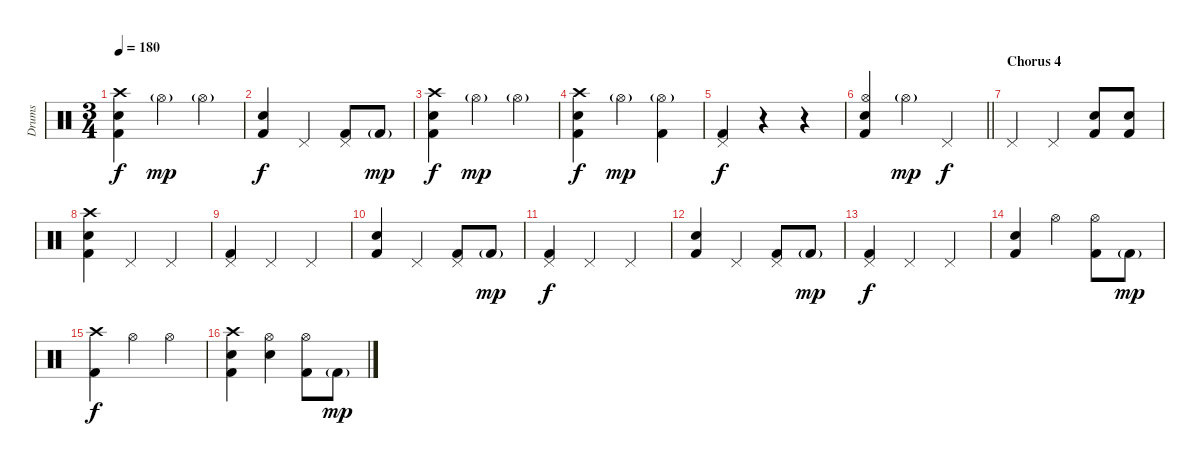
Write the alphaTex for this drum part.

\track ("Drums" "Drums") {instrument percussion}
\staff {score}
\articulation defaults
\ts (3 4)
\tempo 180
\clef neutral
\ks c
("Crash high (hit)" "Snare (hit) 2" "Kick (hit) 2").4{dy f} "Hi-Hat (open)"{g}.4{dy mp} "Hi-Hat (open)"{g}.4 |
("Electric Snare (hit)" "Kick (hit) 2").4{dy f} "Pedal Hi-Hat (hit)".4 ("Pedal Hi-Hat (hit)" "Kick (hit) 2").8 "Kick (hit) 2"{g}.8{dy mp} |
("Crash high (hit)" "Electric Snare (hit)" "Kick (hit) 2").4{dy f} "Hi-Hat (open)"{g}.4{dy mp} "Hi-Hat (open)"{g}.4 |
("Crash high (hit)" "Electric Snare (hit)" "Kick (hit) 2").4{dy f} "Hi-Hat (open)"{g}.4{dy mp} ("Hi-Hat (open)"{g} "Kick (hit) 2").4 |
("Pedal Hi-Hat (hit)" "Kick (hit) 2").4{dy f} r.4 r.4 |
\barLineRight lightlight
("Hi-Hat (open)" "Electric Snare (hit)" "Kick (hit) 2").4 "Hi-Hat (open)"{g}.4{dy mp} "Pedal Hi-Hat (hit)".4{dy f} |
\section ("" "Chorus 4")
"Pedal Hi-Hat (hit)".4 "Pedal Hi-Hat (hit)".4 ("Electric Snare (hit)" "Kick (hit) 2").8 ("Electric Snare (hit)" "Kick (hit) 2").8 |
("Crash high (hit)" "Electric Snare (hit)" "Kick (hit) 2").4 "Pedal Hi-Hat (hit)".4 "Pedal Hi-Hat (hit)".4 |
("Pedal Hi-Hat (hit)" "Kick (hit) 2").4 "Pedal Hi-Hat (hit)".4 "Pedal Hi-Hat (hit)".4 |
("Electric Snare (hit)" "Kick (hit) 2").4 "Pedal Hi-Hat (hit)".4 ("Pedal Hi-Hat (hit)" "Kick (hit) 2").8 "Kick (hit) 2"{g}.8{dy mp} |
("Pedal Hi-Hat (hit)" "Kick (hit) 2").4{dy f} "Pedal Hi-Hat (hit)".4 "Pedal Hi-Hat (hit)".4 |
("Electric Snare (hit)" "Kick (hit) 2").4 "Pedal Hi-Hat (hit)".4 ("Pedal Hi-Hat (hit)" "Kick (hit) 2").8 "Kick (hit) 2"{g}.8{dy mp} |
("Pedal Hi-Hat (hit)" "Kick (hit) 2").4{dy f} "Pedal Hi-Hat (hit)".4 "Pedal Hi-Hat (hit)".4 |
("Electric Snare (hit)" "Kick (hit) 2").4 "Hi-Hat (open)".4 ("Hi-Hat (open)" "Kick (hit) 2").8 "Kick (hit) 2"{g}.8{dy mp} |
("Crash high (hit)" "Kick (hit) 2").4{dy f} "Hi-Hat (open)".4 "Hi-Hat (open)".4 |
("Electric Snare (hit)" "Crash high (hit)" "Kick (hit) 2").4 ("Electric Snare (hit)" "Hi-Hat (open)").4 ("Hi-Hat (open)" "Kick (hit) 2").8 "Kick (hit) 2"{g}.8{dy mp}
